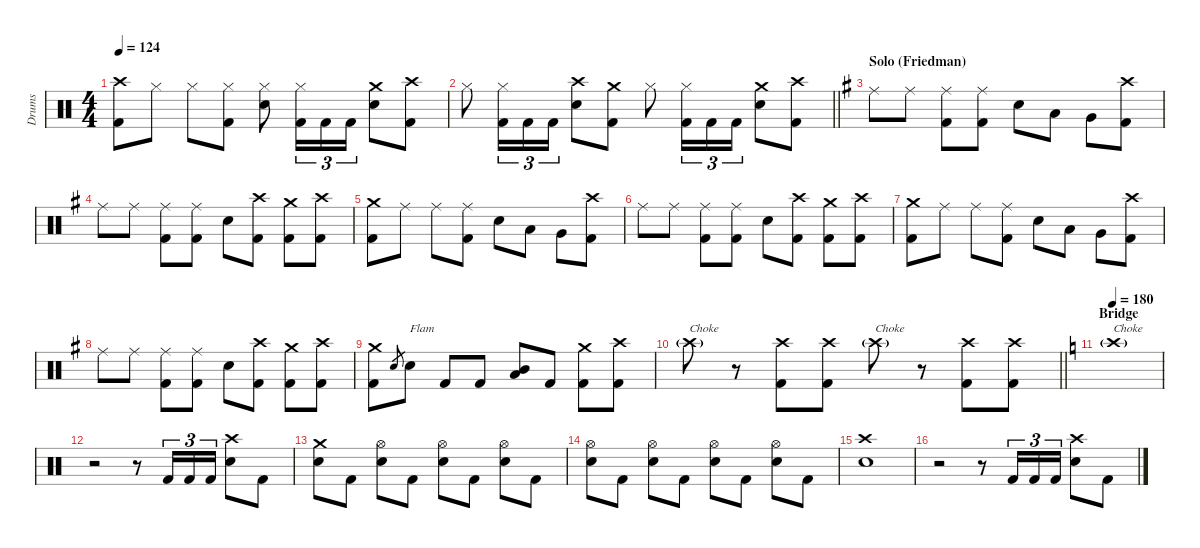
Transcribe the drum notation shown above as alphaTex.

\defaultSystemsLayout 4
\hideDynamics
\bracketExtendMode nobrackets
\firstSystemTrackNameMode fullname
\otherSystemsTrackNameOrientation horizontal
\track ("Drums" "drm.") {instrument percussion}
\staff {score}
\articulation defaults
\ts (4 4)
\tempo 124
\clef neutral
\ks c
("Crash high (hit)" "Kick (hit) 2").8{dy f beam Down} "Hi-Hat (closed)".8{dy mp beam Down} "Hi-Hat (closed)".8{dy mf beam Down} ("Hi-Hat (closed)" "Kick (hit) 2").8{beam Down} ("Hi-Hat (closed)" "Snare (hit) 2").8{beam Down} ("Hi-Hat (closed)" "Kick (hit) 2").16{tu (3 2) dy f beam Down} "Kick (hit) 2".16{tu (3 2) beam Down} "Kick (hit) 2".16{tu (3 2) beam Down} ("Crash medium (hit)" "Snare (hit) 2").8{beam Down} ("Crash high (hit)" "Kick (hit) 2").8{beam Down} |
\barLineRight lightlight "Hi-Hat (closed)".8{beam Down}
("Hi-Hat (closed)" "Kick (hit) 2").16{tu (3 2) beam Down} "Kick (hit) 2".16{tu (3 2) beam Down} "Kick (hit) 2".16{tu (3 2) beam Down} ("Crash high (hit)" "Snare (hit) 2").8{beam Down} ("Crash medium (hit)" "Kick (hit) 2").8{beam Down} "Hi-Hat (closed)".8{beam Down} ("Hi-Hat (closed)" "Kick (hit) 2").16{tu (3 2) beam Down} "Kick (hit) 2".16{tu (3 2) beam Down} "Kick (hit) 2".16{tu (3 2) beam Down} ("Crash medium (hit)" "Snare (hit) 2").8{beam Down} ("Crash high (hit)" "Kick (hit) 2").8{beam Down} |
\section ("" "Solo (Friedman)")
\ks g "Ride (middle)"{acc forcenatural}.8{dy mp beam Down} "Ride (middle)"{acc forcenatural}.8{dy mf beam Down}
("Ride (middle)"{acc forcenatural} "Kick (hit) 2"{acc forcenatural}).8{dy f beam Down} ("Ride (middle)"{acc forcenatural} "Kick (hit) 2"{acc forcenatural}).8{beam Down} "Snare (hit) 2"{acc forcenatural}.8{beam Down} "Low Tom (hit)"{acc forcenatural}.8{beam Down} "Very Low Tom (hit)"{acc forcenatural}.8{beam Down} ("Crash high (hit)"{acc forcenatural} "Kick (hit) 2"{acc forcenatural}).8{beam Down} |
"Ride (middle)"{acc forcenatural}.8{dy mp beam Down} "Ride (middle)"{acc forcenatural}.8{dy mf beam Down} ("Ride (middle)"{acc forcenatural} "Kick (hit) 2"{acc forcenatural}).8{dy f beam Down} ("Ride (middle)"{acc forcenatural} "Kick (hit) 2"{acc forcenatural}).8{beam Down} "Snare (hit) 2"{acc forcenatural}.8{beam Down} ("Crash high (hit)"{acc forcenatural} "Kick (hit) 2"{acc forcenatural}).8{beam Down} ("Crash medium (hit)"{acc forcenatural} "Kick (hit) 2"{acc forcenatural}).8{beam Down} ("Crash high (hit)"{acc forcenatural} "Kick (hit) 2"{acc forcenatural}).8{beam Down} |
("Crash medium (hit)"{acc forcenatural} "Kick (hit) 2"{acc forcenatural}).8{beam Down} "Ride (middle)"{acc forcenatural}.8{dy mf beam Down} "Ride (middle)"{acc forcenatural}.8{dy f beam Down} ("Ride (middle)"{acc forcenatural} "Kick (hit) 2"{acc forcenatural}).8{beam Down} "Snare (hit) 2"{acc forcenatural}.8{beam Down} "Low Tom (hit)"{acc forcenatural}.8{beam Down} "Very Low Tom (hit)"{acc forcenatural}.8{beam Down} ("Crash high (hit)"{acc forcenatural} "Kick (hit) 2"{acc forcenatural}).8{beam Down} |
"Ride (middle)"{acc forcenatural}.8{dy mp beam Down} "Ride (middle)"{acc forcenatural}.8{dy mf beam Down} ("Ride (middle)"{acc forcenatural} "Kick (hit) 2"{acc forcenatural}).8{dy f beam Down} ("Ride (middle)"{acc forcenatural} "Kick (hit) 2"{acc forcenatural}).8{beam Down} "Snare (hit) 2"{acc forcenatural}.8{beam Down} ("Crash high (hit)"{acc forcenatural} "Kick (hit) 2"{acc forcenatural}).8{beam Down} ("Crash medium (hit)"{acc forcenatural} "Kick (hit) 2"{acc forcenatural}).8{beam Down} ("Crash high (hit)"{acc forcenatural} "Kick (hit) 2"{acc forcenatural}).8{beam Down} |
("Crash medium (hit)"{acc forcenatural} "Kick (hit) 2"{acc forcenatural}).8{beam Down} "Ride (middle)"{acc forcenatural}.8{dy mf beam Down} "Ride (middle)"{acc forcenatural}.8{dy f beam Down} ("Ride (middle)"{acc forcenatural} "Kick (hit) 2"{acc forcenatural}).8{beam Down} "Snare (hit) 2"{acc forcenatural}.8{beam Down} "Low Tom (hit)"{acc forcenatural}.8{beam Down} "Very Low Tom (hit)"{acc forcenatural}.8{beam Down} ("Crash high (hit)"{acc forcenatural} "Kick (hit) 2"{acc forcenatural}).8{beam Down} |
"Ride (middle)"{acc forcenatural}.8{dy mp beam Down} "Ride (middle)"{acc forcenatural}.8{dy mf beam Down} ("Ride (middle)"{acc forcenatural} "Kick (hit) 2"{acc forcenatural}).8{dy f beam Down} ("Ride (middle)"{acc forcenatural} "Kick (hit) 2"{acc forcenatural}).8{beam Down} "Snare (hit) 2"{acc forcenatural}.8{beam Down} ("Crash high (hit)"{acc forcenatural} "Kick (hit) 2"{acc forcenatural}).8{beam Down} ("Crash medium (hit)"{acc forcenatural} "Kick (hit) 2"{acc forcenatural}).8{beam Down} ("Crash high (hit)"{acc forcenatural} "Kick (hit) 2"{acc forcenatural}).8{beam Down} |
("Crash medium (hit)"{acc forcenatural} "Kick (hit) 2"{acc forcenatural}).8{beam Down} "Snare (hit) 2"{acc forcenatural}.8{gr dy mf beam Up} "Snare (hit) 2"{acc forcenatural}.8{txt "Flam" dy f beam Down} "Kick (hit) 2"{acc forcenatural}.8{beam Up} "Kick (hit) 2"{acc forcenatural}.8{beam Up} ("Mid Tom (hit)"{acc forcenatural} "Low Tom (hit)"{acc forcenatural}).8{beam Up} "Kick (hit) 2"{acc forcenatural}.8{beam Up} ("Crash medium (hit)"{acc forcenatural} "Kick (hit) 2"{acc forcenatural}).8{beam Down} ("Crash high (hit)"{acc forcenatural} "Kick (hit) 2"{acc forcenatural}).8{beam Down} |
\barLineRight lightlight "Crash high (hit)"{g acc forcenatural}.8{txt "Choke" beam Down}
r.8{beam Down} ("Crash high (hit)"{acc forcenatural} "Kick (hit) 2"{acc forcenatural}).8{dy ff beam Down} ("Crash high (hit)"{acc forcenatural} "Kick (hit) 2"{acc forcenatural}).8{beam Down} "Crash high (hit)"{g acc forcenatural}.8{txt "Choke" dy f beam Down} r.8{beam Down} ("Crash high (hit)"{acc forcenatural} "Kick (hit) 2"{acc forcenatural}).8{dy ff beam Down} ("Crash high (hit)"{acc forcenatural} "Kick (hit) 2"{acc forcenatural}).8{beam Down} |
\section ("" "Bridge")
\tempo 180
\ks c "Crash high (hit)"{g}.1{txt "Choke" dy f beam Down}
|
r.2{beam Down} r.8{beam Down} "Kick (hit) 2".16{tu (3 2) beam Up} "Kick (hit) 2".16{tu (3 2) beam Up} "Kick (hit) 2".16{tu (3 2) beam Up} ("Crash high (hit)" "Snare (hit) 2").8{beam Down} "Kick (hit) 2".8{beam Down} |
("Crash medium (hit)" "Snare (hit) 2").8{beam Down} "Kick (hit) 2".8{beam Down} ("Hi-Hat (open)" "Snare (hit) 2").8{beam Down} "Kick (hit) 2".8{beam Down} ("Hi-Hat (open)" "Snare (hit) 2").8{beam Down} "Kick (hit) 2".8{beam Down} ("Hi-Hat (open)" "Snare (hit) 2").8{beam Down} "Kick (hit) 2".8{beam Down} |
("Hi-Hat (open)" "Snare (hit) 2").8{beam Down} "Kick (hit) 2".8{beam Down} ("Hi-Hat (open)" "Snare (hit) 2").8{beam Down} "Kick (hit) 2".8{beam Down} ("Hi-Hat (open)" "Snare (hit) 2").8{beam Down} "Kick (hit) 2".8{beam Down} ("Hi-Hat (open)" "Snare (hit) 2").8{beam Down} "Kick (hit) 2".8{beam Down} |
("Crash high (hit)" "Snare (hit) 2").1{beam Down} |
r.2{beam Down} r.8{beam Down} "Kick (hit) 2".16{tu (3 2) beam Up} "Kick (hit) 2".16{tu (3 2) beam Up} "Kick (hit) 2".16{tu (3 2) beam Up} ("Crash high (hit)" "Snare (hit) 2").8{beam Down} "Kick (hit) 2".8{beam Down}
